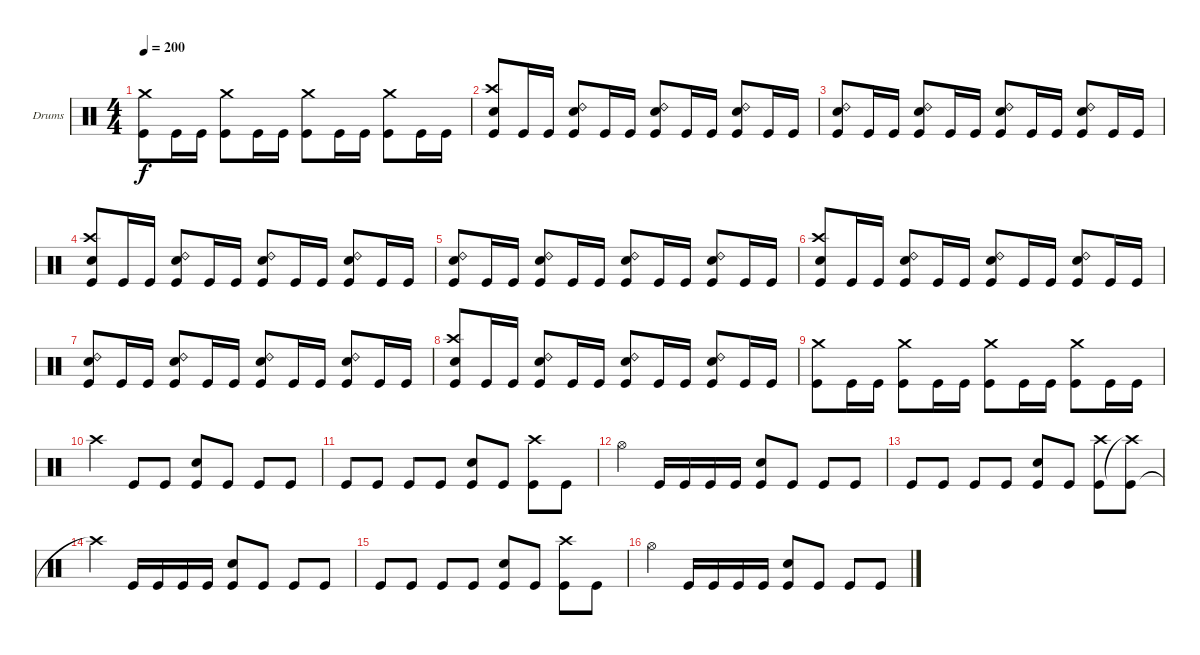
\bracketExtendMode groupsimilarinstruments
\firstSystemTrackNameOrientation horizontal
\otherSystemsTrackNameOrientation horizontal
\track ("Canadien" "Drums") {instrument percussion}
\staff {score}
\articulation defaults
\ts (4 4)
\tempo 200
\clef neutral
\ks c
("Crash medium (hit)" "Kick (hit)").8{dy f} "Kick (hit)".16 "Kick (hit)".16 ("Crash medium (hit)" "Kick (hit)").8 "Kick (hit)".16 "Kick (hit)".16 ("Crash medium (hit)" "Kick (hit)").8 "Kick (hit)".16 "Kick (hit)".16 ("Crash medium (hit)" "Kick (hit)").8 "Kick (hit)".16 "Kick (hit)".16 |
("Crash high (hit)" "Snare (hit) 2" "Kick (hit)").8 "Kick (hit)".16 "Kick (hit)".16 ("Ride (bell) 2" "Snare (hit) 2" "Kick (hit)").8 "Kick (hit)".16 "Kick (hit)".16 ("Ride (bell) 2" "Snare (hit) 2" "Kick (hit)").8 "Kick (hit)".16 "Kick (hit)".16 ("Ride (bell) 2" "Snare (hit) 2" "Kick (hit)").8 "Kick (hit)".16 "Kick (hit)".16 |
("Ride (bell) 2" "Snare (hit) 2" "Kick (hit)").8 "Kick (hit)".16 "Kick (hit)".16 ("Ride (bell) 2" "Snare (hit) 2" "Kick (hit)").8 "Kick (hit)".16 "Kick (hit)".16 ("Ride (bell) 2" "Snare (hit) 2" "Kick (hit)").8 "Kick (hit)".16 "Kick (hit)".16 ("Ride (bell) 2" "Snare (hit) 2" "Kick (hit)").8 "Kick (hit)".16 "Kick (hit)".16 |
("Crash high (hit)" "Snare (hit) 2" "Kick (hit)").8 "Kick (hit)".16 "Kick (hit)".16 ("Ride (bell) 2" "Snare (hit) 2" "Kick (hit)").8 "Kick (hit)".16 "Kick (hit)".16 ("Ride (bell) 2" "Snare (hit) 2" "Kick (hit)").8 "Kick (hit)".16 "Kick (hit)".16 ("Ride (bell) 2" "Snare (hit) 2" "Kick (hit)").8 "Kick (hit)".16 "Kick (hit)".16 |
("Ride (bell) 2" "Snare (hit) 2" "Kick (hit)").8 "Kick (hit)".16 "Kick (hit)".16 ("Ride (bell) 2" "Snare (hit) 2" "Kick (hit)").8 "Kick (hit)".16 "Kick (hit)".16 ("Ride (bell) 2" "Snare (hit) 2" "Kick (hit)").8 "Kick (hit)".16 "Kick (hit)".16 ("Ride (bell) 2" "Snare (hit) 2" "Kick (hit)").8 "Kick (hit)".16 "Kick (hit)".16 |
("Crash high (hit)" "Snare (hit) 2" "Kick (hit)").8 "Kick (hit)".16 "Kick (hit)".16 ("Ride (bell) 2" "Snare (hit) 2" "Kick (hit)").8 "Kick (hit)".16 "Kick (hit)".16 ("Ride (bell) 2" "Snare (hit) 2" "Kick (hit)").8 "Kick (hit)".16 "Kick (hit)".16 ("Ride (bell) 2" "Snare (hit) 2" "Kick (hit)").8 "Kick (hit)".16 "Kick (hit)".16 |
("Ride (bell) 2" "Snare (hit) 2" "Kick (hit)").8 "Kick (hit)".16 "Kick (hit)".16 ("Ride (bell) 2" "Snare (hit) 2" "Kick (hit)").8 "Kick (hit)".16 "Kick (hit)".16 ("Ride (bell) 2" "Snare (hit) 2" "Kick (hit)").8 "Kick (hit)".16 "Kick (hit)".16 ("Ride (bell) 2" "Snare (hit) 2" "Kick (hit)").8 "Kick (hit)".16 "Kick (hit)".16 |
("Crash high (hit)" "Snare (hit) 2" "Kick (hit)").8 "Kick (hit)".16 "Kick (hit)".16 ("Ride (bell) 2" "Snare (hit) 2" "Kick (hit)").8 "Kick (hit)".16 "Kick (hit)".16 ("Ride (bell) 2" "Snare (hit) 2" "Kick (hit)").8 "Kick (hit)".16 "Kick (hit)".16 ("Ride (bell) 2" "Snare (hit) 2" "Kick (hit)").8 "Kick (hit)".16 "Kick (hit)".16 |
("Crash medium (hit)" "Kick (hit)").8 "Kick (hit)".16 "Kick (hit)".16 ("Crash medium (hit)" "Kick (hit)").8 "Kick (hit)".16 "Kick (hit)".16 ("Crash medium (hit)" "Kick (hit)").8 "Kick (hit)".16 "Kick (hit)".16 ("Crash medium (hit)" "Kick (hit)").8 "Kick (hit)".16 "Kick (hit)".16 |
"Crash high (hit)".4 "Kick (hit)".8 "Kick (hit)".8 ("Snare (hit) 2" "Kick (hit)").8 "Kick (hit)".8 "Kick (hit)".8 "Kick (hit)".8 |
"Kick (hit)".8 "Kick (hit)".8 "Kick (hit)".8 "Kick (hit)".8 ("Snare (hit) 2" "Kick (hit)").8 "Kick (hit)".8 ("Crash high (hit)" "Kick (hit)").8 "Kick (hit)".8 |
"Hi-Hat (open)".4 "Kick (hit)".16 "Kick (hit)".16 "Kick (hit)".16 "Kick (hit)".16 ("Snare (hit) 2" "Kick (hit)").8 "Kick (hit)".8 "Kick (hit)".8 "Kick (hit)".8 |
"Kick (hit)".8 "Kick (hit)".8 "Kick (hit)".8 "Kick (hit)".8 ("Snare (hit) 2" "Kick (hit)").8 "Kick (hit)".8 ("Crash high (hit)" "Kick (hit)").8 ("Kick (hit)" "Crash high (hit)"{t}).8 |
"Crash high (hit)"{t}.4 "Kick (hit)".16 "Kick (hit)".16 "Kick (hit)".16 "Kick (hit)".16 ("Snare (hit) 2" "Kick (hit)").8 "Kick (hit)".8 "Kick (hit)".8 "Kick (hit)".8 |
"Kick (hit)".8 "Kick (hit)".8 "Kick (hit)".8 "Kick (hit)".8 ("Snare (hit) 2" "Kick (hit)").8 "Kick (hit)".8 ("Crash high (hit)" "Kick (hit)").8 "Kick (hit)".8 |
"Hi-Hat (open)".4 "Kick (hit)".16 "Kick (hit)".16 "Kick (hit)".16 "Kick (hit)".16 ("Snare (hit) 2" "Kick (hit)").8 "Kick (hit)".8 "Kick (hit)".8 "Kick (hit)".8
